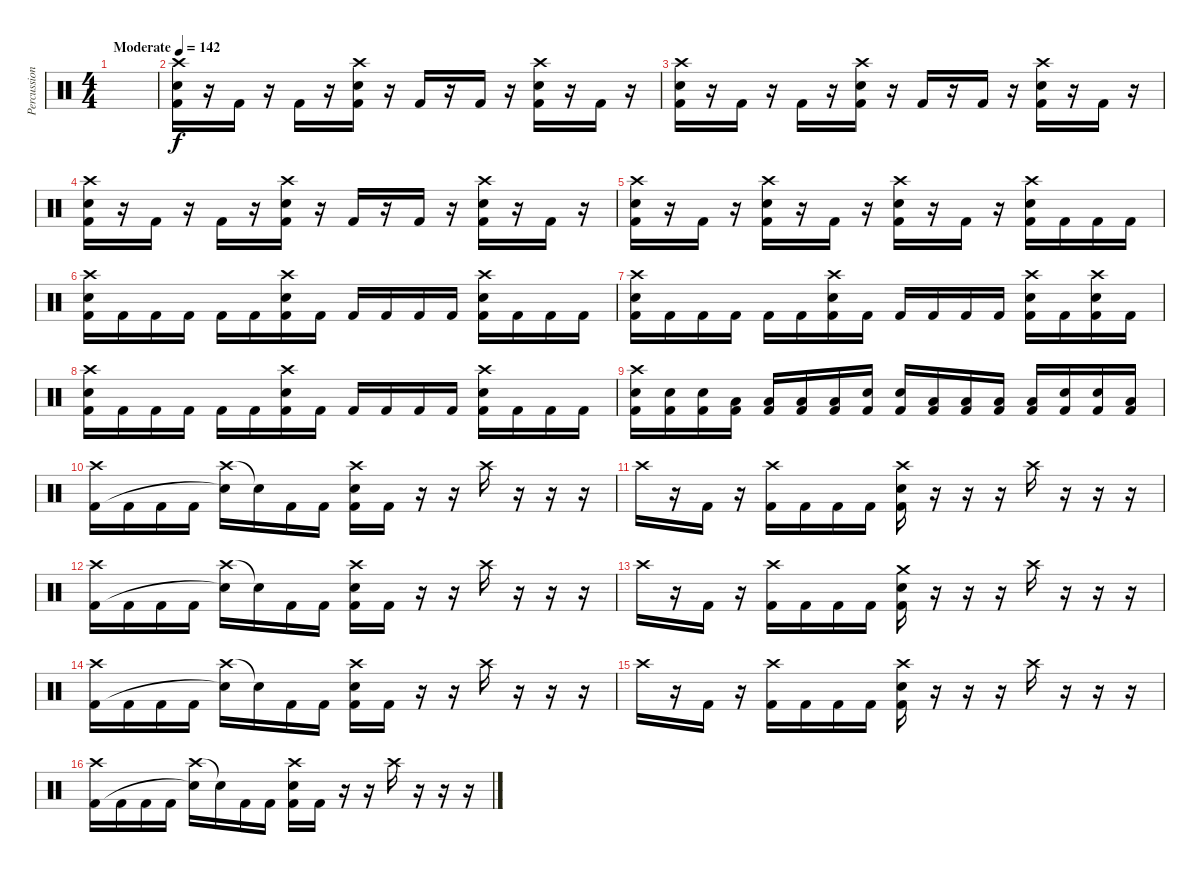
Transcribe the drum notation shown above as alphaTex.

\track ("Percussion" "Percussion") {instrument percussion}
\staff {score}
\articulation defaults
\ts (4 4)
\tempo (142 "Moderate")
\clef neutral
\ks c
|
("Crash high (hit)" "Electric Snare (hit)" "Kick (hit) 2").16 r.16 "Kick (hit) 2".16 r.16 "Kick (hit) 2".16 r.16 ("Crash high (hit)" "Electric Snare (hit)" "Kick (hit) 2").16 r.16 "Kick (hit) 2".16 r.16 "Kick (hit) 2".16 r.16 ("Crash high (hit)" "Electric Snare (hit)" "Kick (hit) 2").16 r.16 "Kick (hit) 2".16 r.16 |
("Crash high (hit)" "Electric Snare (hit)" "Kick (hit) 2").16 r.16 "Kick (hit) 2".16 r.16 "Kick (hit) 2".16 r.16 ("Crash high (hit)" "Electric Snare (hit)" "Kick (hit) 2").16 r.16 "Kick (hit) 2".16 r.16 "Kick (hit) 2".16 r.16 ("Crash high (hit)" "Electric Snare (hit)" "Kick (hit) 2").16 r.16 "Kick (hit) 2".16 r.16 |
("Crash high (hit)" "Electric Snare (hit)" "Kick (hit) 2").16 r.16 "Kick (hit) 2".16 r.16 "Kick (hit) 2".16 r.16 ("Crash high (hit)" "Electric Snare (hit)" "Kick (hit) 2").16 r.16 "Kick (hit) 2".16 r.16 "Kick (hit) 2".16 r.16 ("Crash high (hit)" "Electric Snare (hit)" "Kick (hit) 2").16 r.16 "Kick (hit) 2".16 r.16 |
("Crash high (hit)" "Electric Snare (hit)" "Kick (hit) 2").16 r.16 "Kick (hit) 2".16 r.16 ("Crash high (hit)" "Electric Snare (hit)" "Kick (hit) 2").16 r.16 "Kick (hit) 2".16 r.16 ("Crash high (hit)" "Electric Snare (hit)" "Kick (hit) 2").16 r.16 "Kick (hit) 2".16 r.16 ("Crash high (hit)" "Electric Snare (hit)" "Kick (hit) 2").16 "Kick (hit) 2".16 "Kick (hit) 2".16 "Kick (hit) 2".16 |
("Crash high (hit)" "Electric Snare (hit)" "Kick (hit) 2").16 "Kick (hit) 2".16 "Kick (hit) 2".16 "Kick (hit) 2".16 "Kick (hit) 2".16 "Kick (hit) 2".16 ("Crash high (hit)" "Electric Snare (hit)" "Kick (hit) 2").16 "Kick (hit) 2".16 "Kick (hit) 2".16 "Kick (hit) 2".16 "Kick (hit) 2".16 "Kick (hit) 2".16 ("Crash high (hit)" "Electric Snare (hit)" "Kick (hit) 2").16 "Kick (hit) 2".16 "Kick (hit) 2".16 "Kick (hit) 2".16 |
("Crash high (hit)" "Electric Snare (hit)" "Kick (hit) 2").16 "Kick (hit) 2".16 "Kick (hit) 2".16 "Kick (hit) 2".16 "Kick (hit) 2".16 "Kick (hit) 2".16 ("Crash high (hit)" "Electric Snare (hit)" "Kick (hit) 2").16 "Kick (hit) 2".16 "Kick (hit) 2".16 "Kick (hit) 2".16 "Kick (hit) 2".16 "Kick (hit) 2".16 ("Crash high (hit)" "Electric Snare (hit)" "Kick (hit) 2").16 "Kick (hit) 2".16 ("Crash high (hit)" "Electric Snare (hit)" "Kick (hit) 2").16 "Kick (hit) 2".16 |
("Crash high (hit)" "Electric Snare (hit)" "Kick (hit) 2").16 "Kick (hit) 2".16 "Kick (hit) 2".16 "Kick (hit) 2".16 "Kick (hit) 2".16 "Kick (hit) 2".16 ("Crash high (hit)" "Electric Snare (hit)" "Kick (hit) 2").16 "Kick (hit) 2".16 "Kick (hit) 2".16 "Kick (hit) 2".16 "Kick (hit) 2".16 "Kick (hit) 2".16 ("Crash high (hit)" "Electric Snare (hit)" "Kick (hit) 2").16 "Kick (hit) 2".16 "Kick (hit) 2".16 "Kick (hit) 2".16 |
("Crash high (hit)" "Electric Snare (hit)" "Kick (hit) 2").16 ("Electric Snare (hit)" "Kick (hit) 2").16 ("Electric Snare (hit)" "Kick (hit) 2").16 ("Low Floor Tom (hit)" "Kick (hit) 2").16 ("Low Floor Tom (hit)" "Kick (hit) 2").16 ("Low Tom (hit)" "Kick (hit) 2").16 ("Low Tom (hit)" "Kick (hit) 2").16 ("Electric Snare (hit)" "Kick (hit) 2").16 ("Electric Snare (hit)" "Kick (hit) 2").16 ("Low Floor Tom (hit)" "Kick (hit) 2").16 ("Low Floor Tom (hit)" "Kick (hit) 2").16 ("Low Tom (hit)" "Kick (hit) 2").16 ("Low Tom (hit)" "Kick (hit) 2").16 ("Electric Snare (hit)" "Kick (hit) 2").16 ("Electric Snare (hit)" "Kick (hit) 2").16 ("Low Floor Tom (hit)" "Kick (hit) 2").16 |
("Crash high (hit)" "Kick (hit) 2").16 "Kick (hit) 2".16 "Kick (hit) 2".16 "Kick (hit) 2".16 ("Crash high (hit)" "Snare (hit)"{t}).16 "Snare (hit)"{t}.16 "Kick (hit) 2".16 "Kick (hit) 2".16 ("Crash high (hit)" "Electric Snare (hit)" "Kick (hit) 2").16 "Kick (hit) 2".16 r.16 r.16 "Crash high (hit)".16 r.16 r.16 r.16 |
"Crash high (hit)".16 r.16 "Kick (hit) 2".16 r.16 ("Crash high (hit)" "Kick (hit) 2").16 "Kick (hit) 2".16 "Kick (hit) 2".16 "Kick (hit) 2".16 ("Crash high (hit)" "Electric Snare (hit)" "Kick (hit) 2").16 r.16 r.16 r.16 "Crash high (hit)".16 r.16 r.16 r.16 |
("Crash high (hit)" "Kick (hit) 2").16 "Kick (hit) 2".16 "Kick (hit) 2".16 "Kick (hit) 2".16 ("Crash high (hit)" "Snare (hit)"{t}).16 "Snare (hit)"{t}.16 "Kick (hit) 2".16 "Kick (hit) 2".16 ("Crash high (hit)" "Electric Snare (hit)" "Kick (hit) 2").16 "Kick (hit) 2".16 r.16 r.16 "Crash high (hit)".16 r.16 r.16 r.16 |
"Crash high (hit)".16 r.16 "Kick (hit) 2".16 r.16 ("Crash high (hit)" "Kick (hit) 2").16 "Kick (hit) 2".16 "Kick (hit) 2".16 "Kick (hit) 2".16 ("Crash medium (hit)" "Electric Snare (hit)" "Kick (hit) 2").16 r.16 r.16 r.16 "Crash high (hit)".16 r.16 r.16 r.16 |
("Crash high (hit)" "Kick (hit) 2").16 "Kick (hit) 2".16 "Kick (hit) 2".16 "Kick (hit) 2".16 ("Crash high (hit)" "Snare (hit)"{t}).16 "Snare (hit)"{t}.16 "Kick (hit) 2".16 "Kick (hit) 2".16 ("Crash high (hit)" "Electric Snare (hit)" "Kick (hit) 2").16 "Kick (hit) 2".16 r.16 r.16 "Crash high (hit)".16 r.16 r.16 r.16 |
"Crash high (hit)".16 r.16 "Kick (hit) 2".16 r.16 ("Crash high (hit)" "Kick (hit) 2").16 "Kick (hit) 2".16 "Kick (hit) 2".16 "Kick (hit) 2".16 ("Crash high (hit)" "Electric Snare (hit)" "Kick (hit) 2").16 r.16 r.16 r.16 "Crash high (hit)".16 r.16 r.16 r.16 |
("Crash high (hit)" "Kick (hit) 2").16 "Kick (hit) 2".16 "Kick (hit) 2".16 "Kick (hit) 2".16 ("Crash high (hit)" "Snare (hit)"{t}).16 "Snare (hit)"{t}.16 "Kick (hit) 2".16 "Kick (hit) 2".16 ("Crash high (hit)" "Electric Snare (hit)" "Kick (hit) 2").16 "Kick (hit) 2".16 r.16 r.16 "Crash high (hit)".16 r.16 r.16 r.16
